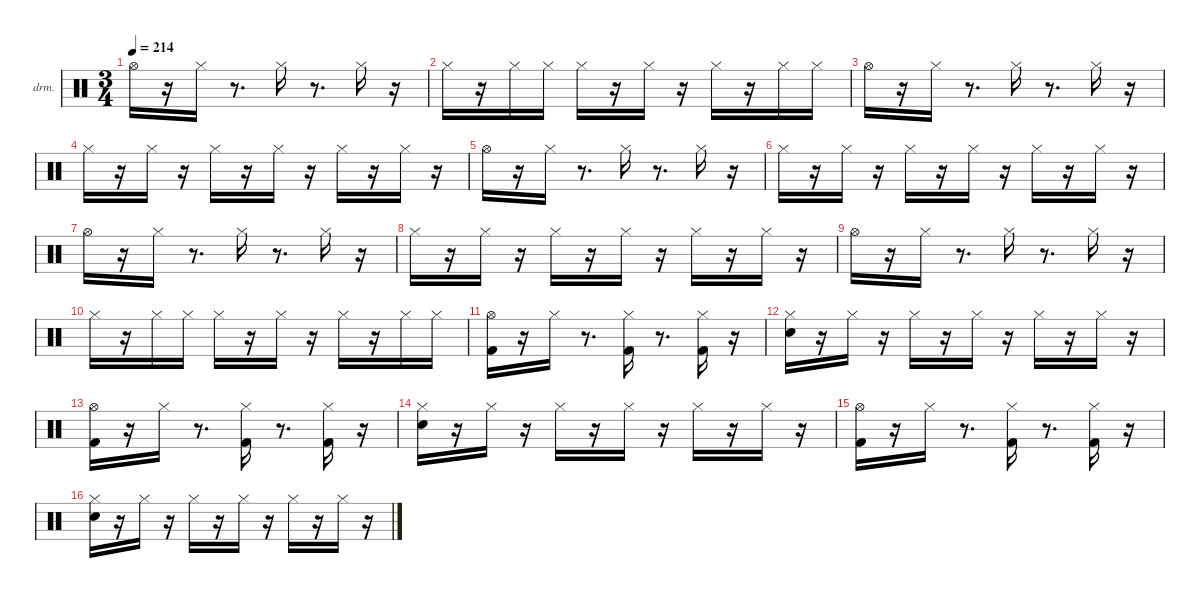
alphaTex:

\hideDynamics
\bracketExtendMode nobrackets
\firstSystemTrackNameOrientation horizontal
\otherSystemsTrackNameOrientation horizontal
\track ("EZdrummer 3" "drm.") {instrument percussion}
\staff {score}
\articulation defaults
\ts (3 4)
\tempo 214
\clef neutral
\ks aminor "Hi-Hat (open)"{acc #}.16{dy fff}
r.16 "Hi-Hat (closed)"{acc #}.16{dy ff} r.8{d} "Hi-Hat (closed)"{acc #}.16{dy mp} r.8{d} "Hi-Hat (closed)"{acc #}.16{dy mf} r.16 |
"Hi-Hat (closed)"{acc #}.16{dy ff} r.16 "Hi-Hat (closed)"{acc #}.16{dy p} "Hi-Hat (closed)"{acc #}.16{dy pp} "Hi-Hat (closed)"{acc #}.16{dy ff} r.16 "Hi-Hat (closed)"{acc #}.16{dy ppp} r.16 "Hi-Hat (closed)"{acc #}.16{dy mp} r.16 "Hi-Hat (closed)"{acc #}.16{dy ppp} "Hi-Hat (closed)"{acc #}.16 |
"Hi-Hat (open)"{acc #}.16{dy fff} r.16 "Hi-Hat (closed)"{acc #}.16{dy ff} r.8{d} "Hi-Hat (closed)"{acc #}.16{dy mp} r.8{d} "Hi-Hat (closed)"{acc #}.16{dy mf} r.16 |
"Hi-Hat (closed)"{acc #}.16{dy ff} r.16 "Hi-Hat (closed)"{acc #}.16{dy ppp} r.16 "Hi-Hat (closed)"{acc #}.16{dy mp} r.16 "Hi-Hat (closed)"{acc #}.16{dy ppp} r.16 "Hi-Hat (closed)"{acc #}.16{dy mp} r.16 "Hi-Hat (closed)"{acc #}.16{dy ppp} r.16 |
"Hi-Hat (open)"{acc #}.16{dy fff} r.16 "Hi-Hat (closed)"{acc #}.16{dy ff} r.8{d} "Hi-Hat (closed)"{acc #}.16{dy mp} r.8{d} "Hi-Hat (closed)"{acc #}.16{dy mf} r.16 |
"Hi-Hat (closed)"{acc #}.16{dy ff} r.16 "Hi-Hat (closed)"{acc #}.16{dy ppp} r.16 "Hi-Hat (closed)"{acc #}.16{dy mp} r.16 "Hi-Hat (closed)"{acc #}.16{dy ppp} r.16 "Hi-Hat (closed)"{acc #}.16{dy mp} r.16 "Hi-Hat (closed)"{acc #}.16{dy ppp} r.16 |
"Hi-Hat (open)"{acc #}.16{dy fff} r.16 "Hi-Hat (closed)"{acc #}.16{dy ff} r.8{d} "Hi-Hat (closed)"{acc #}.16{dy mp} r.8{d} "Hi-Hat (closed)"{acc #}.16{dy mf} r.16 |
"Hi-Hat (closed)"{acc #}.16{dy ff} r.16 "Hi-Hat (closed)"{acc #}.16{dy ppp} r.16 "Hi-Hat (closed)"{acc #}.16{dy mp} r.16 "Hi-Hat (closed)"{acc #}.16{dy ppp} r.16 "Hi-Hat (closed)"{acc #}.16{dy mp} r.16 "Hi-Hat (closed)"{acc #}.16{dy ppp} r.16 |
"Hi-Hat (open)"{acc #}.16{dy fff} r.16 "Hi-Hat (closed)"{acc #}.16{dy ff} r.8{d} "Hi-Hat (closed)"{acc #}.16{dy mp} r.8{d} "Hi-Hat (closed)"{acc #}.16{dy mf} r.16 |
"Hi-Hat (closed)"{acc #}.16{dy ff} r.16 "Hi-Hat (closed)"{acc #}.16{dy p} "Hi-Hat (closed)"{acc #}.16{dy pp} "Hi-Hat (closed)"{acc #}.16{dy ff} r.16 "Hi-Hat (closed)"{acc #}.16{dy ppp} r.16 "Hi-Hat (closed)"{acc #}.16{dy mp} r.16 "Hi-Hat (closed)"{acc #}.16{dy ppp} "Hi-Hat (closed)"{acc #}.16 |
("Kick (hit) 2" "Hi-Hat (open)"{acc #}).16{dy ff} r.16 "Hi-Hat (closed)"{acc #}.16 r.8{d} ("Kick (hit) 2" "Hi-Hat (closed)"{acc #}).16{dy mp} r.8{d} ("Kick (hit) 2" "Hi-Hat (closed)"{acc #}).16{dy mf} r.16 |
("Snare (hit) 2" "Hi-Hat (closed)"{acc #}).16{dy ff} r.16 "Hi-Hat (closed)"{acc #}.16{dy ppp} r.16 "Hi-Hat (closed)"{acc #}.16{dy mp} r.16 "Hi-Hat (closed)"{acc #}.16{dy ppp} r.16 "Hi-Hat (closed)"{acc #}.16{dy mp} r.16 "Hi-Hat (closed)"{acc #}.16{dy ppp} r.16 |
("Kick (hit) 2" "Hi-Hat (open)"{acc #}).16{dy ff} r.16 "Hi-Hat (closed)"{acc #}.16 r.8{d} ("Kick (hit) 2" "Hi-Hat (closed)"{acc #}).16{dy mp} r.8{d} ("Kick (hit) 2" "Hi-Hat (closed)"{acc #}).16{dy mf} r.16 |
("Snare (hit) 2" "Hi-Hat (closed)"{acc #}).16{dy ff} r.16 "Hi-Hat (closed)"{acc #}.16{dy ppp} r.16 "Hi-Hat (closed)"{acc #}.16{dy mp} r.16 "Hi-Hat (closed)"{acc #}.16{dy ppp} r.16 "Hi-Hat (closed)"{acc #}.16{dy mp} r.16 "Hi-Hat (closed)"{acc #}.16{dy ppp} r.16 |
("Kick (hit) 2" "Hi-Hat (open)"{acc #}).16{dy ff} r.16 "Hi-Hat (closed)"{acc #}.16 r.8{d} ("Kick (hit) 2" "Hi-Hat (closed)"{acc #}).16{dy p} r.8{d} ("Kick (hit) 2" "Hi-Hat (closed)"{acc #}).16{dy mf} r.16 |
("Snare (hit) 2" "Hi-Hat (closed)"{acc #}).16{dy ff} r.16 "Hi-Hat (closed)"{acc #}.16{dy ppp} r.16 "Hi-Hat (closed)"{acc #}.16{dy mp} r.16 "Hi-Hat (closed)"{acc #}.16{dy ppp} r.16 "Hi-Hat (closed)"{acc #}.16{dy mp} r.16 "Hi-Hat (closed)"{acc #}.16{dy ppp} r.16
